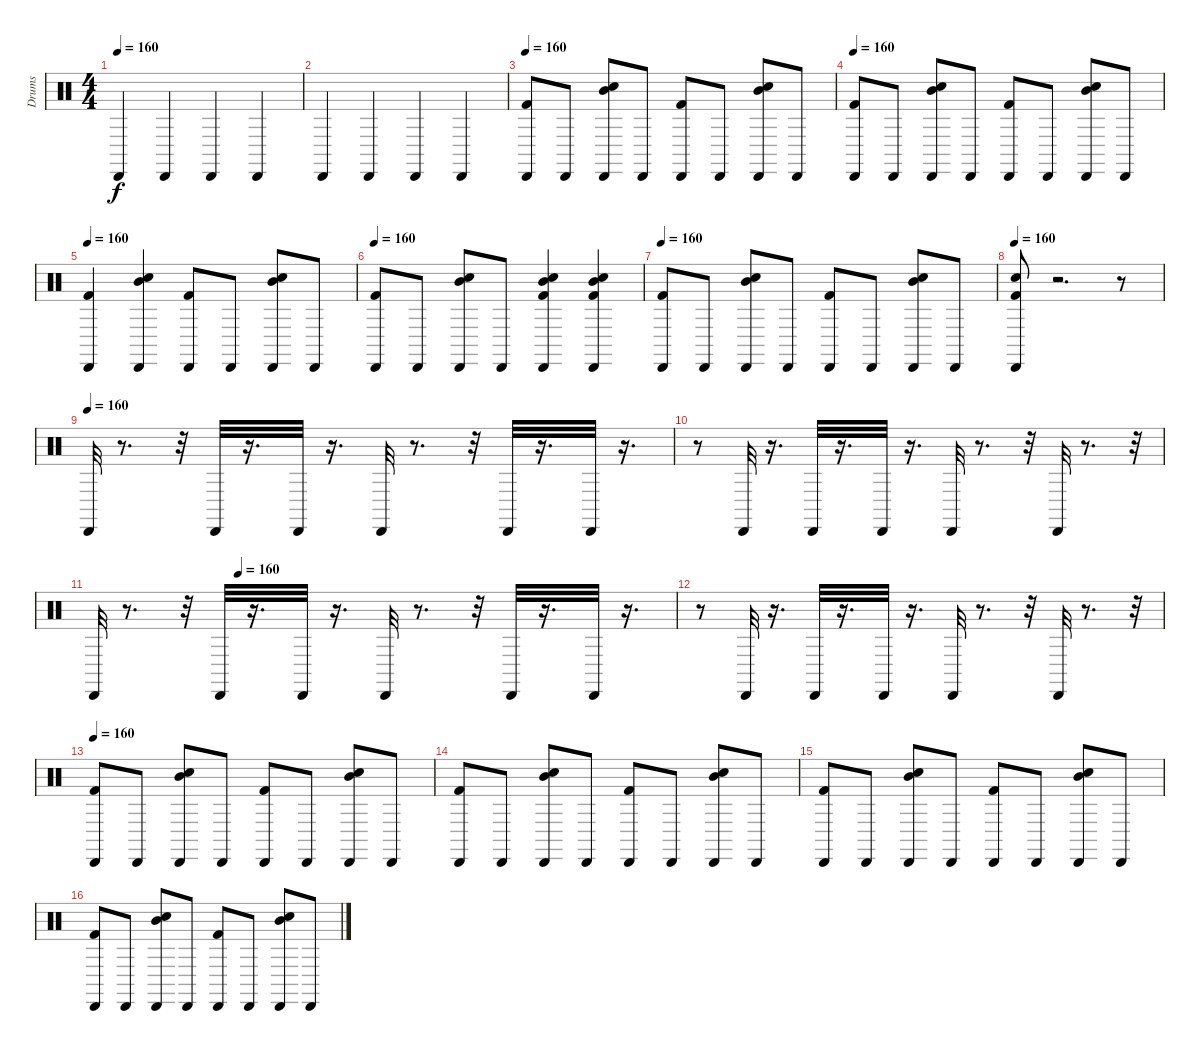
\track ("Drums" "Drums") {instrument percussion}
\staff {score}
\articulation defaults
\ts (4 4)
\tempo 160
\clef neutral
\ks c "Cabasa (hit)".4{dy f} "Cabasa (hit)".4 "Cabasa (hit)".4 "Cabasa (hit)".4
|
"Cabasa (hit)".4 "Cabasa (hit)".4 "Cabasa (hit)".4 "Cabasa (hit)".4 |
\tempo 160
("Cabasa (hit)" "Kick (hit) 2").8 "Cabasa (hit)".8 ("Electric Snare (hit)" "Cabasa (hit)" "Mid Tom (hit)").8 "Cabasa (hit)".8 ("Cabasa (hit)" "Kick (hit) 2").8 "Cabasa (hit)".8 ("Mid Tom (hit)" "Electric Snare (hit)" "Cabasa (hit)").8 "Cabasa (hit)".8 |
\tempo 160
("Kick (hit) 2" "Cabasa (hit)").8 "Cabasa (hit)".8 ("Electric Snare (hit)" "Mid Tom (hit)" "Cabasa (hit)").8 "Cabasa (hit)".8 ("Cabasa (hit)" "Kick (hit) 2").8 "Cabasa (hit)".8 ("Cabasa (hit)" "Electric Snare (hit)" "Mid Tom (hit)").8 "Cabasa (hit)".8 |
\tempo 160
("Cabasa (hit)" "Kick (hit) 2").4 ("Electric Snare (hit)" "Cabasa (hit)" "Mid Tom (hit)").4 ("Cabasa (hit)" "Kick (hit) 2").8 "Cabasa (hit)".8 ("Mid Tom (hit)" "Electric Snare (hit)" "Cabasa (hit)").8 "Cabasa (hit)".8 |
\tempo 160
("Kick (hit) 2" "Cabasa (hit)").8 "Cabasa (hit)".8 ("Electric Snare (hit)" "Mid Tom (hit)" "Cabasa (hit)").8 "Cabasa (hit)".8 ("Mid Tom (hit)" "Electric Snare (hit)" "Cabasa (hit)" "Kick (hit) 2").4 ("Kick (hit) 2" "Cabasa (hit)" "Electric Snare (hit)" "Mid Tom (hit)").4 |
\tempo 160
("Cabasa (hit)" "Kick (hit) 2").8 "Cabasa (hit)".8 ("Electric Snare (hit)" "Cabasa (hit)" "Mid Tom (hit)").8 "Cabasa (hit)".8 ("Cabasa (hit)" "Kick (hit) 2").8 "Cabasa (hit)".8 ("Mid Tom (hit)" "Electric Snare (hit)" "Cabasa (hit)").8 "Cabasa (hit)".8 |
\tempo 160
("Kick (hit) 2" "Electric Snare (hit)" "Cabasa (hit)").8 r.2{d} r.8 |
\tempo (160)
"Cabasa (hit)".32 r.8{d} r.32 "Cabasa (hit)".32 r.16{d} "Cabasa (hit)".32 r.16{d} "Cabasa (hit)".32 r.8{d} r.32 "Cabasa (hit)".32 r.16{d} "Cabasa (hit)".32 r.16{d} |
r.8 "Cabasa (hit)".32 r.16{d} "Cabasa (hit)".32 r.16{d} "Cabasa (hit)".32 r.16{d} "Cabasa (hit)".32 r.8{d} r.32 "Cabasa (hit)".32 r.8{d} r.32 |
\tempo (160 0.25)
"Cabasa (hit)".32 r.8{d} r.32 "Cabasa (hit)".32 r.16{d} "Cabasa (hit)".32 r.16{d} "Cabasa (hit)".32 r.8{d} r.32 "Cabasa (hit)".32 r.16{d} "Cabasa (hit)".32 r.16{d} |
r.8 "Cabasa (hit)".32 r.16{d} "Cabasa (hit)".32 r.16{d} "Cabasa (hit)".32 r.16{d} "Cabasa (hit)".32 r.8{d} r.32 "Cabasa (hit)".32 r.8{d} r.32 |
\tempo 160
("Kick (hit) 2" "Cabasa (hit)").8 "Cabasa (hit)".8 ("Electric Snare (hit)" "Mid Tom (hit)" "Cabasa (hit)").8 "Cabasa (hit)".8 ("Cabasa (hit)" "Kick (hit) 2").8 "Cabasa (hit)".8 ("Cabasa (hit)" "Electric Snare (hit)" "Mid Tom (hit)").8 "Cabasa (hit)".8 |
("Cabasa (hit)" "Kick (hit) 2").8 "Cabasa (hit)".8 ("Electric Snare (hit)" "Cabasa (hit)" "Mid Tom (hit)").8 "Cabasa (hit)".8 ("Cabasa (hit)" "Kick (hit) 2").8 "Cabasa (hit)".8 ("Mid Tom (hit)" "Electric Snare (hit)" "Cabasa (hit)").8 "Cabasa (hit)".8 |
("Kick (hit) 2" "Cabasa (hit)").8 "Cabasa (hit)".8 ("Electric Snare (hit)" "Mid Tom (hit)" "Cabasa (hit)").8 "Cabasa (hit)".8 ("Cabasa (hit)" "Kick (hit) 2").8 "Cabasa (hit)".8 ("Cabasa (hit)" "Electric Snare (hit)" "Mid Tom (hit)").8 "Cabasa (hit)".8 |
("Cabasa (hit)" "Kick (hit) 2").8 "Cabasa (hit)".8 ("Electric Snare (hit)" "Cabasa (hit)" "Mid Tom (hit)").8 "Cabasa (hit)".8 ("Cabasa (hit)" "Kick (hit) 2").8 "Cabasa (hit)".8 ("Mid Tom (hit)" "Electric Snare (hit)" "Cabasa (hit)").8 "Cabasa (hit)".8
